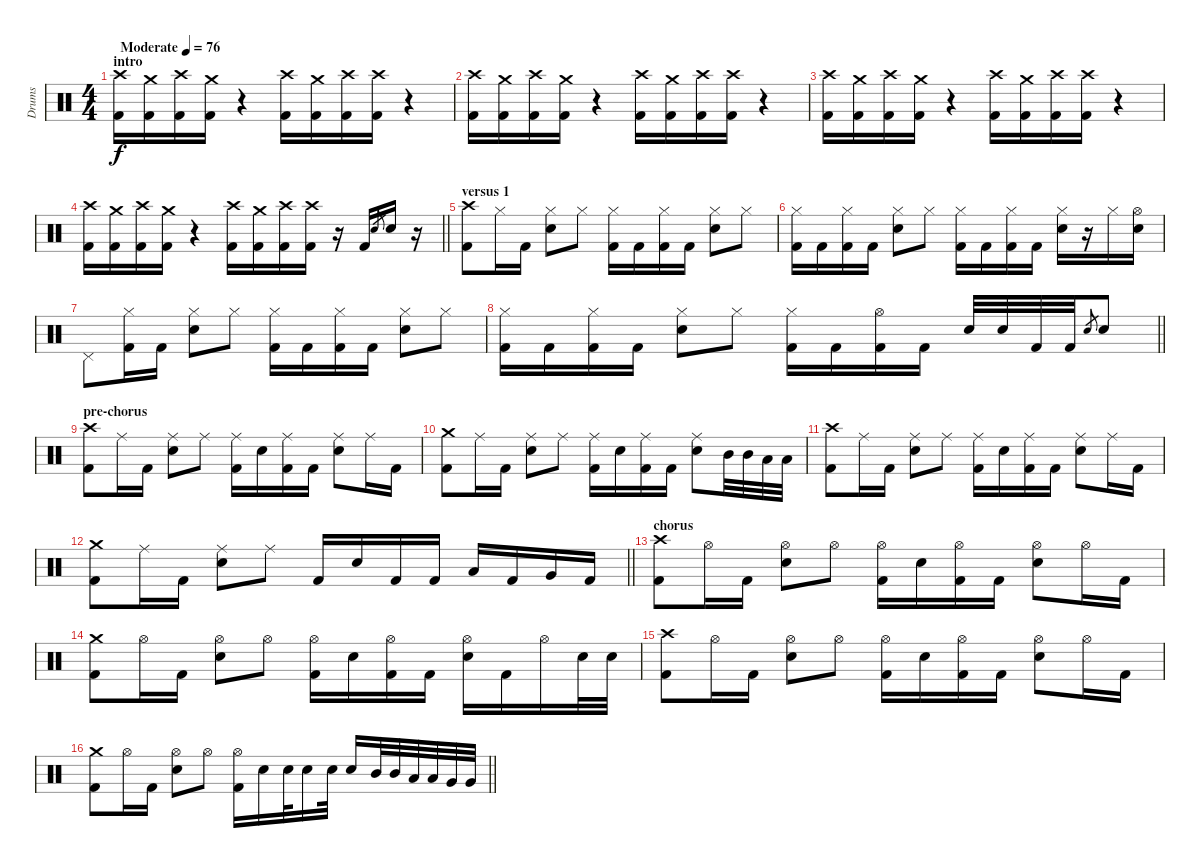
\track ("Drums" "Drums") {instrument percussion}
\staff {score}
\articulation defaults
\ts (4 4)
\section ("" "intro")
\tempo (76 "Moderate")
\clef neutral
\ks c
("Crash high (hit)" "Kick (hit) 2").16{dy f} ("Crash medium (hit)" "Kick (hit) 2").16 ("Crash high (hit)" "Kick (hit) 2").16 ("Crash medium (hit)" "Kick (hit) 2").16 r.4 ("Crash high (hit)" "Kick (hit) 2").16 ("Crash medium (hit)" "Kick (hit) 2").16 ("Crash high (hit)" "Kick (hit) 2").16 ("Crash high (hit)" "Kick (hit) 2").16 r.4 |
("Crash high (hit)" "Kick (hit) 2").16 ("Crash medium (hit)" "Kick (hit) 2").16 ("Crash high (hit)" "Kick (hit) 2").16 ("Crash medium (hit)" "Kick (hit) 2").16 r.4 ("Crash high (hit)" "Kick (hit) 2").16 ("Crash medium (hit)" "Kick (hit) 2").16 ("Crash high (hit)" "Kick (hit) 2").16 ("Crash high (hit)" "Kick (hit) 2").16 r.4 |
("Crash high (hit)" "Kick (hit) 2").16 ("Crash medium (hit)" "Kick (hit) 2").16 ("Crash high (hit)" "Kick (hit) 2").16 ("Crash medium (hit)" "Kick (hit) 2").16 r.4 ("Crash high (hit)" "Kick (hit) 2").16 ("Crash medium (hit)" "Kick (hit) 2").16 ("Crash high (hit)" "Kick (hit) 2").16 ("Crash high (hit)" "Kick (hit) 2").16 r.4 |
\barLineRight lightlight
("Crash high (hit)" "Kick (hit) 2").16 ("Crash medium (hit)" "Kick (hit) 2").16 ("Crash high (hit)" "Kick (hit) 2").16 ("Crash medium (hit)" "Kick (hit) 2").16 r.4 ("Crash high (hit)" "Kick (hit) 2").16 ("Crash medium (hit)" "Kick (hit) 2").16 ("Crash high (hit)" "Kick (hit) 2").16 ("Crash high (hit)" "Kick (hit) 2").16 r.16 "Kick (hit) 2".16 "Snare (hit) 2".8{gr} "Snare (hit) 2".16 r.16 |
\section ("" "versus 1")
("Crash high (hit)" "Kick (hit) 2").8 "Hi-Hat (closed)".16 "Kick (hit) 2".16 ("Hi-Hat (closed)" "Snare (hit) 2").8 "Hi-Hat (closed)".8 ("Hi-Hat (closed)" "Kick (hit) 2").16 "Kick (hit) 2".16 ("Hi-Hat (closed)" "Kick (hit) 2").16 "Kick (hit) 2".16 ("Hi-Hat (closed)" "Snare (hit) 2").8 "Hi-Hat (closed)".8 |
("Hi-Hat (closed)" "Kick (hit) 2").16 "Kick (hit) 2".16 ("Hi-Hat (closed)" "Kick (hit) 2").16 "Kick (hit) 2".16 ("Hi-Hat (closed)" "Snare (hit) 2").8 "Hi-Hat (closed)".8 ("Hi-Hat (closed)" "Kick (hit) 2").16 "Kick (hit) 2".16 ("Hi-Hat (closed)" "Kick (hit) 2").16 "Kick (hit) 2".16 ("Hi-Hat (closed)" "Snare (hit) 2").16 r.16 "Hi-Hat (closed)".16 ("Hi-Hat (open)" "Snare (hit) 2").16 |
"Pedal Hi-Hat (hit)".8 ("Hi-Hat (closed)" "Kick (hit) 2").16 "Kick (hit) 2".16 ("Hi-Hat (closed)" "Snare (hit) 2").8 "Hi-Hat (closed)".8 ("Hi-Hat (closed)" "Kick (hit) 2").16 "Kick (hit) 2".16 ("Hi-Hat (closed)" "Kick (hit) 2").16 "Kick (hit) 2".16 ("Hi-Hat (closed)" "Snare (hit) 2").8 "Hi-Hat (closed)".8 |
\barLineRight lightlight
("Hi-Hat (closed)" "Kick (hit) 2").16 "Kick (hit) 2".16 ("Hi-Hat (closed)" "Kick (hit) 2").16 "Kick (hit) 2".16 ("Hi-Hat (closed)" "Snare (hit) 2").8 "Hi-Hat (closed)".8 ("Hi-Hat (closed)" "Kick (hit) 2").16 "Kick (hit) 2".16 ("Hi-Hat (open)" "Kick (hit) 2").16 "Kick (hit) 2".16 "Snare (hit) 2".32 "Snare (hit) 2".32 "Kick (hit) 2".32 "Kick (hit) 2".32 "Snare (hit) 2".8{gr} "Snare (hit) 2".8 |
\section ("" "pre-chorus")
("Crash high (hit)" "Kick (hit) 2").8 "Ride (middle)".16 "Kick (hit) 2".16 ("Ride (middle)" "Snare (hit) 2").8 "Ride (middle)".8 ("Ride (middle)" "Kick (hit) 2").16 "Snare (hit) 2".16 ("Ride (middle)" "Kick (hit) 2").16 "Kick (hit) 2".16 ("Ride (middle)" "Snare (hit) 2").8 "Ride (middle)".16 "Kick (hit) 2".16 |
("Crash medium (hit)" "Kick (hit) 2").8 "Ride (middle)".16 "Kick (hit) 2".16 ("Ride (middle)" "Snare (hit) 2").8 "Ride (middle)".8 ("Ride (middle)" "Kick (hit) 2").16 "Snare (hit) 2".16 ("Ride (middle)" "Kick (hit) 2").16 "Kick (hit) 2".16 ("Ride (middle)" "Snare (hit) 2").8 "Mid Tom (hit)".32 "Mid Tom (hit)".32 "Low Tom (hit)".32 "Low Tom (hit)".32 |
("Crash high (hit)" "Kick (hit) 2").8 "Ride (middle)".16 "Kick (hit) 2".16 ("Ride (middle)" "Snare (hit) 2").8 "Ride (middle)".8 ("Ride (middle)" "Kick (hit) 2").16 "Snare (hit) 2".16 ("Ride (middle)" "Kick (hit) 2").16 "Kick (hit) 2".16 ("Ride (middle)" "Snare (hit) 2").8 "Ride (middle)".16 "Kick (hit) 2".16 |
\barLineRight lightlight
("Crash medium (hit)" "Kick (hit) 2").8 "Ride (middle)".16 "Kick (hit) 2".16 ("Ride (middle)" "Snare (hit) 2").8 "Ride (middle)".8 "Kick (hit) 2".16 "Snare (hit) 2".16 "Kick (hit) 2".16 "Kick (hit) 2".16 "Low Tom (hit)".16 "Kick (hit) 2".16 "Very Low Tom (hit)".16 "Kick (hit) 2".16 |
\section ("" "chorus")
("Crash high (hit)" "Kick (hit) 2").8 "Hi-Hat (open)".16 "Kick (hit) 2".16 ("Hi-Hat (open)" "Snare (hit) 2").8 "Hi-Hat (open)".8 ("Hi-Hat (open)" "Kick (hit) 2").16 "Snare (hit) 2".16 ("Hi-Hat (open)" "Kick (hit) 2").16 "Kick (hit) 2".16 ("Hi-Hat (open)" "Snare (hit) 2").8 "Hi-Hat (open)".16 "Kick (hit) 2".16 |
("Crash medium (hit)" "Kick (hit) 2").8 "Hi-Hat (open)".16 "Kick (hit) 2".16 ("Hi-Hat (open)" "Snare (hit) 2").8 "Hi-Hat (open)".8 ("Hi-Hat (open)" "Kick (hit) 2").16 "Snare (hit) 2".16 ("Hi-Hat (open)" "Kick (hit) 2").16 "Kick (hit) 2".16 ("Hi-Hat (open)" "Snare (hit) 2").16 "Kick (hit) 2".16 "Hi-Hat (open)".16 "Snare (hit) 2".32 "Snare (hit) 2".32 |
("Crash high (hit)" "Kick (hit) 2").8 "Hi-Hat (open)".16 "Kick (hit) 2".16 ("Hi-Hat (open)" "Snare (hit) 2").8 "Hi-Hat (open)".8 ("Hi-Hat (open)" "Kick (hit) 2").16 "Snare (hit) 2".16 ("Hi-Hat (open)" "Kick (hit) 2").16 "Kick (hit) 2".16 ("Hi-Hat (open)" "Snare (hit) 2").8 "Hi-Hat (open)".16 "Kick (hit) 2".16 |
\barLineRight lightlight
("Crash medium (hit)" "Kick (hit) 2").8 "Hi-Hat (open)".16 "Kick (hit) 2".16 ("Hi-Hat (open)" "Snare (hit) 2").8 "Hi-Hat (open)".8 ("Hi-Hat (open)" "Kick (hit) 2").16 "Snare (hit) 2".16 "Snare (hit) 2".32 "Snare (hit) 2".16 "Snare (hit) 2".32 "Snare (hit) 2".16 "Mid Tom (hit)".32 "Mid Tom (hit)".32 "Low Tom (hit)".32 "Low Tom (hit)".32 "Very Low Tom (hit)".32 "Very Low Tom (hit)".32
